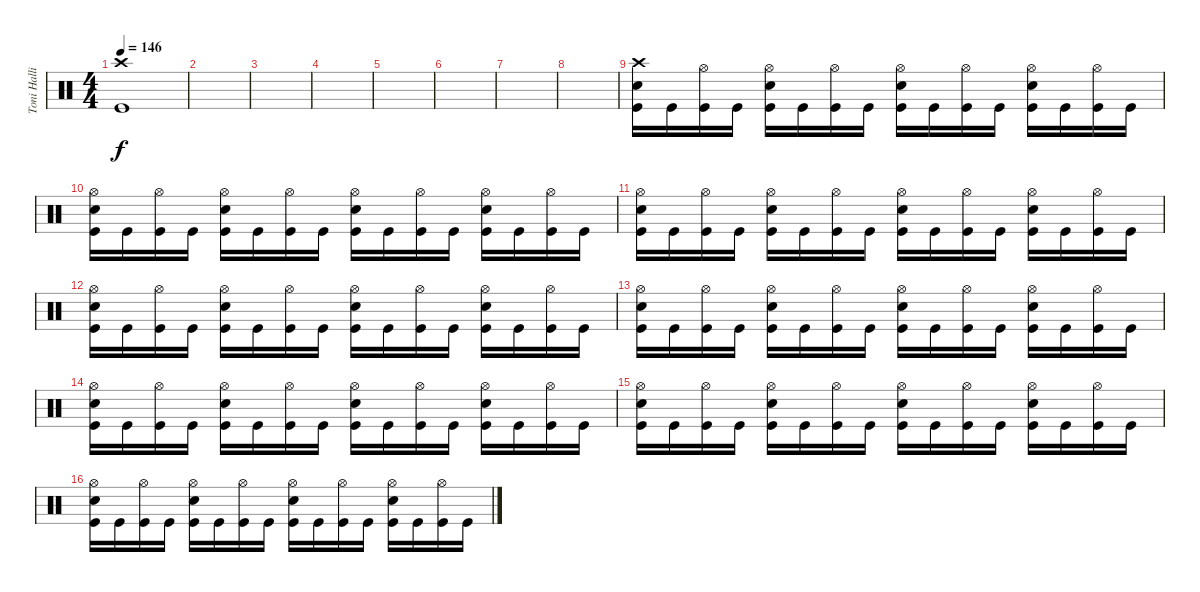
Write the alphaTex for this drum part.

\track ("Toni Hallio" "Toni Halli") {instrument percussion}
\staff {score}
\articulation defaults
\ts (4 4)
\tempo 146
\clef neutral
\ks c
("Crash high (hit)" "Kick (hit)").1{dy f} |
|
|
|
|
|
|
|
("Crash high (hit)" "Snare (hit) 2" "Kick (hit)").16 "Kick (hit)".16 ("Hi-Hat (open)" "Kick (hit)").16 "Kick (hit)".16 ("Hi-Hat (open)" "Snare (hit) 2" "Kick (hit)").16 "Kick (hit)".16 ("Hi-Hat (open)" "Kick (hit)").16 "Kick (hit)".16 ("Hi-Hat (open)" "Snare (hit) 2" "Kick (hit)").16 "Kick (hit)".16 ("Hi-Hat (open)" "Kick (hit)").16 "Kick (hit)".16 ("Hi-Hat (open)" "Snare (hit) 2" "Kick (hit)").16 "Kick (hit)".16 ("Hi-Hat (open)" "Kick (hit)").16 "Kick (hit)".16 |
("Hi-Hat (open)" "Snare (hit) 2" "Kick (hit)").16 "Kick (hit)".16 ("Hi-Hat (open)" "Kick (hit)").16 "Kick (hit)".16 ("Hi-Hat (open)" "Snare (hit) 2" "Kick (hit)").16 "Kick (hit)".16 ("Hi-Hat (open)" "Kick (hit)").16 "Kick (hit)".16 ("Hi-Hat (open)" "Snare (hit) 2" "Kick (hit)").16 "Kick (hit)".16 ("Hi-Hat (open)" "Kick (hit)").16 "Kick (hit)".16 ("Hi-Hat (open)" "Snare (hit) 2" "Kick (hit)").16 "Kick (hit)".16 ("Hi-Hat (open)" "Kick (hit)").16 "Kick (hit)".16 |
("Hi-Hat (open)" "Snare (hit) 2" "Kick (hit)").16 "Kick (hit)".16 ("Hi-Hat (open)" "Kick (hit)").16 "Kick (hit)".16 ("Hi-Hat (open)" "Snare (hit) 2" "Kick (hit)").16 "Kick (hit)".16 ("Hi-Hat (open)" "Kick (hit)").16 "Kick (hit)".16 ("Hi-Hat (open)" "Snare (hit) 2" "Kick (hit)").16 "Kick (hit)".16 ("Hi-Hat (open)" "Kick (hit)").16 "Kick (hit)".16 ("Hi-Hat (open)" "Snare (hit) 2" "Kick (hit)").16 "Kick (hit)".16 ("Hi-Hat (open)" "Kick (hit)").16 "Kick (hit)".16 |
("Hi-Hat (open)" "Snare (hit) 2" "Kick (hit)").16 "Kick (hit)".16 ("Hi-Hat (open)" "Kick (hit)").16 "Kick (hit)".16 ("Hi-Hat (open)" "Snare (hit) 2" "Kick (hit)").16 "Kick (hit)".16 ("Hi-Hat (open)" "Kick (hit)").16 "Kick (hit)".16 ("Hi-Hat (open)" "Snare (hit) 2" "Kick (hit)").16 "Kick (hit)".16 ("Hi-Hat (open)" "Kick (hit)").16 "Kick (hit)".16 ("Hi-Hat (open)" "Snare (hit) 2" "Kick (hit)").16 "Kick (hit)".16 ("Hi-Hat (open)" "Kick (hit)").16 "Kick (hit)".16 |
("Hi-Hat (open)" "Snare (hit) 2" "Kick (hit)").16 "Kick (hit)".16 ("Hi-Hat (open)" "Kick (hit)").16 "Kick (hit)".16 ("Hi-Hat (open)" "Snare (hit) 2" "Kick (hit)").16 "Kick (hit)".16 ("Hi-Hat (open)" "Kick (hit)").16 "Kick (hit)".16 ("Hi-Hat (open)" "Snare (hit) 2" "Kick (hit)").16 "Kick (hit)".16 ("Hi-Hat (open)" "Kick (hit)").16 "Kick (hit)".16 ("Hi-Hat (open)" "Snare (hit) 2" "Kick (hit)").16 "Kick (hit)".16 ("Hi-Hat (open)" "Kick (hit)").16 "Kick (hit)".16 |
("Hi-Hat (open)" "Snare (hit) 2" "Kick (hit)").16 "Kick (hit)".16 ("Hi-Hat (open)" "Kick (hit)").16 "Kick (hit)".16 ("Hi-Hat (open)" "Snare (hit) 2" "Kick (hit)").16 "Kick (hit)".16 ("Hi-Hat (open)" "Kick (hit)").16 "Kick (hit)".16 ("Hi-Hat (open)" "Snare (hit) 2" "Kick (hit)").16 "Kick (hit)".16 ("Hi-Hat (open)" "Kick (hit)").16 "Kick (hit)".16 ("Hi-Hat (open)" "Snare (hit) 2" "Kick (hit)").16 "Kick (hit)".16 ("Hi-Hat (open)" "Kick (hit)").16 "Kick (hit)".16 |
("Hi-Hat (open)" "Snare (hit) 2" "Kick (hit)").16 "Kick (hit)".16 ("Hi-Hat (open)" "Kick (hit)").16 "Kick (hit)".16 ("Hi-Hat (open)" "Snare (hit) 2" "Kick (hit)").16 "Kick (hit)".16 ("Hi-Hat (open)" "Kick (hit)").16 "Kick (hit)".16 ("Hi-Hat (open)" "Snare (hit) 2" "Kick (hit)").16 "Kick (hit)".16 ("Hi-Hat (open)" "Kick (hit)").16 "Kick (hit)".16 ("Hi-Hat (open)" "Snare (hit) 2" "Kick (hit)").16 "Kick (hit)".16 ("Hi-Hat (open)" "Kick (hit)").16 "Kick (hit)".16 |
("Hi-Hat (open)" "Snare (hit) 2" "Kick (hit)").16 "Kick (hit)".16 ("Hi-Hat (open)" "Kick (hit)").16 "Kick (hit)".16 ("Hi-Hat (open)" "Snare (hit) 2" "Kick (hit)").16 "Kick (hit)".16 ("Hi-Hat (open)" "Kick (hit)").16 "Kick (hit)".16 ("Hi-Hat (open)" "Snare (hit) 2" "Kick (hit)").16 "Kick (hit)".16 ("Hi-Hat (open)" "Kick (hit)").16 "Kick (hit)".16 ("Hi-Hat (open)" "Snare (hit) 2" "Kick (hit)").16 "Kick (hit)".16 ("Hi-Hat (open)" "Kick (hit)").16 "Kick (hit)".16
